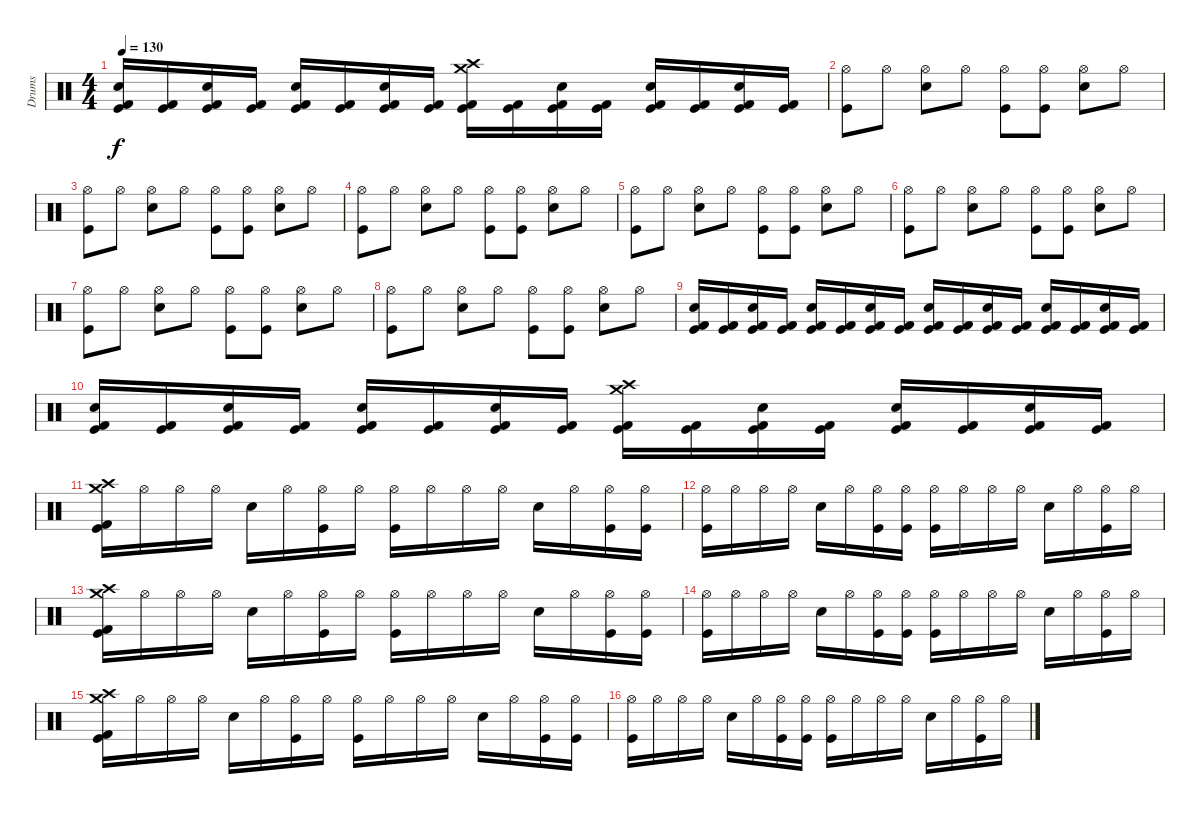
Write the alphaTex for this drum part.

\track ("Drums" "Drums") {instrument percussion}
\staff {score}
\articulation defaults
\ts (4 4)
\tempo 130
\clef neutral
\ks c
("Electric Snare (hit)" "Kick (hit)" "Kick (hit) 2").16{dy f} ("Kick (hit)" "Kick (hit) 2").16 ("Electric Snare (hit)" "Kick (hit)" "Kick (hit) 2").16 ("Kick (hit)" "Kick (hit) 2").16 ("Electric Snare (hit)" "Kick (hit)" "Kick (hit) 2").16 ("Kick (hit)" "Kick (hit) 2").16 ("Electric Snare (hit)" "Kick (hit)" "Kick (hit) 2").16 ("Kick (hit)" "Kick (hit) 2").16 ("Crash medium (hit)" "Crash high (hit)" "Kick (hit)" "Kick (hit) 2").16 ("Kick (hit)" "Kick (hit) 2").16 ("Electric Snare (hit)" "Kick (hit)" "Kick (hit) 2").16 ("Kick (hit)" "Kick (hit) 2").16 ("Electric Snare (hit)" "Kick (hit)" "Kick (hit) 2").16 ("Kick (hit)" "Kick (hit) 2").16 ("Electric Snare (hit)" "Kick (hit)" "Kick (hit) 2").16 ("Kick (hit)" "Kick (hit) 2").16 |
("Kick (hit)" "Hi-Hat (open)").8 "Hi-Hat (open)".8 ("Electric Snare (hit)" "Hi-Hat (open)").8 "Hi-Hat (open)".8 ("Kick (hit)" "Hi-Hat (open)").8 ("Kick (hit)" "Hi-Hat (open)").8 ("Electric Snare (hit)" "Hi-Hat (open)").8 "Hi-Hat (open)".8 |
("Kick (hit)" "Hi-Hat (open)").8 "Hi-Hat (open)".8 ("Electric Snare (hit)" "Hi-Hat (open)").8 "Hi-Hat (open)".8 ("Kick (hit)" "Hi-Hat (open)").8 ("Kick (hit)" "Hi-Hat (open)").8 ("Electric Snare (hit)" "Hi-Hat (open)").8 "Hi-Hat (open)".8 |
("Kick (hit)" "Hi-Hat (open)").8 "Hi-Hat (open)".8 ("Electric Snare (hit)" "Hi-Hat (open)").8 "Hi-Hat (open)".8 ("Kick (hit)" "Hi-Hat (open)").8 ("Kick (hit)" "Hi-Hat (open)").8 ("Electric Snare (hit)" "Hi-Hat (open)").8 "Hi-Hat (open)".8 |
("Kick (hit)" "Hi-Hat (open)").8 "Hi-Hat (open)".8 ("Electric Snare (hit)" "Hi-Hat (open)").8 "Hi-Hat (open)".8 ("Kick (hit)" "Hi-Hat (open)").8 ("Kick (hit)" "Hi-Hat (open)").8 ("Electric Snare (hit)" "Hi-Hat (open)").8 "Hi-Hat (open)".8 |
("Kick (hit)" "Hi-Hat (open)").8 "Hi-Hat (open)".8 ("Electric Snare (hit)" "Hi-Hat (open)").8 "Hi-Hat (open)".8 ("Kick (hit)" "Hi-Hat (open)").8 ("Kick (hit)" "Hi-Hat (open)").8 ("Electric Snare (hit)" "Hi-Hat (open)").8 "Hi-Hat (open)".8 |
("Kick (hit)" "Hi-Hat (open)").8 "Hi-Hat (open)".8 ("Electric Snare (hit)" "Hi-Hat (open)").8 "Hi-Hat (open)".8 ("Kick (hit)" "Hi-Hat (open)").8 ("Kick (hit)" "Hi-Hat (open)").8 ("Electric Snare (hit)" "Hi-Hat (open)").8 "Hi-Hat (open)".8 |
("Kick (hit)" "Hi-Hat (open)").8 "Hi-Hat (open)".8 ("Electric Snare (hit)" "Hi-Hat (open)").8 "Hi-Hat (open)".8 ("Kick (hit)" "Hi-Hat (open)").8 ("Kick (hit)" "Hi-Hat (open)").8 ("Electric Snare (hit)" "Hi-Hat (open)").8 "Hi-Hat (open)".8 |
("Electric Snare (hit)" "Kick (hit)" "Kick (hit) 2").16 ("Kick (hit)" "Kick (hit) 2").16 ("Electric Snare (hit)" "Kick (hit)" "Kick (hit) 2").16 ("Kick (hit)" "Kick (hit) 2").16 ("Electric Snare (hit)" "Kick (hit)" "Kick (hit) 2").16 ("Kick (hit)" "Kick (hit) 2").16 ("Electric Snare (hit)" "Kick (hit)" "Kick (hit) 2").16 ("Kick (hit)" "Kick (hit) 2").16 ("Electric Snare (hit)" "Kick (hit)" "Kick (hit) 2").16 ("Kick (hit)" "Kick (hit) 2").16 ("Electric Snare (hit)" "Kick (hit)" "Kick (hit) 2").16 ("Kick (hit)" "Kick (hit) 2").16 ("Electric Snare (hit)" "Kick (hit)" "Kick (hit) 2").16 ("Kick (hit)" "Kick (hit) 2").16 ("Electric Snare (hit)" "Kick (hit)" "Kick (hit) 2").16 ("Kick (hit)" "Kick (hit) 2").16 |
("Electric Snare (hit)" "Kick (hit)" "Kick (hit) 2").16 ("Kick (hit)" "Kick (hit) 2").16 ("Electric Snare (hit)" "Kick (hit)" "Kick (hit) 2").16 ("Kick (hit)" "Kick (hit) 2").16 ("Electric Snare (hit)" "Kick (hit)" "Kick (hit) 2").16 ("Kick (hit)" "Kick (hit) 2").16 ("Electric Snare (hit)" "Kick (hit)" "Kick (hit) 2").16 ("Kick (hit)" "Kick (hit) 2").16 ("Crash medium (hit)" "Crash high (hit)" "Kick (hit)" "Kick (hit) 2").16 ("Kick (hit)" "Kick (hit) 2").16 ("Electric Snare (hit)" "Kick (hit)" "Kick (hit) 2").16 ("Kick (hit)" "Kick (hit) 2").16 ("Electric Snare (hit)" "Kick (hit)" "Kick (hit) 2").16 ("Kick (hit)" "Kick (hit) 2").16 ("Electric Snare (hit)" "Kick (hit)" "Kick (hit) 2").16 ("Kick (hit)" "Kick (hit) 2").16 |
("Crash medium (hit)" "Crash high (hit)" "Kick (hit) 2" "Kick (hit)").16 "Hi-Hat (open)".16 "Hi-Hat (open)".16 "Hi-Hat (open)".16 "Electric Snare (hit)".16 "Hi-Hat (open)".16 ("Hi-Hat (open)" "Kick (hit)").16 "Hi-Hat (open)".16 ("Hi-Hat (open)" "Kick (hit)").16 "Hi-Hat (open)".16 "Hi-Hat (open)".16 "Hi-Hat (open)".16 "Electric Snare (hit)".16 "Hi-Hat (open)".16 ("Hi-Hat (open)" "Kick (hit)").16 ("Hi-Hat (open)" "Kick (hit)").16 |
("Hi-Hat (open)" "Kick (hit)").16 "Hi-Hat (open)".16 "Hi-Hat (open)".16 "Hi-Hat (open)".16 "Electric Snare (hit)".16 "Hi-Hat (open)".16 ("Hi-Hat (open)" "Kick (hit)").16 ("Hi-Hat (open)" "Kick (hit)").16 ("Hi-Hat (open)" "Kick (hit)").16 "Hi-Hat (open)".16 "Hi-Hat (open)".16 "Hi-Hat (open)".16 "Electric Snare (hit)".16 "Hi-Hat (open)".16 ("Hi-Hat (open)" "Kick (hit)").16 "Hi-Hat (open)".16 |
("Crash medium (hit)" "Crash high (hit)" "Kick (hit) 2" "Kick (hit)").16 "Hi-Hat (open)".16 "Hi-Hat (open)".16 "Hi-Hat (open)".16 "Electric Snare (hit)".16 "Hi-Hat (open)".16 ("Hi-Hat (open)" "Kick (hit)").16 "Hi-Hat (open)".16 ("Hi-Hat (open)" "Kick (hit)").16 "Hi-Hat (open)".16 "Hi-Hat (open)".16 "Hi-Hat (open)".16 "Electric Snare (hit)".16 "Hi-Hat (open)".16 ("Hi-Hat (open)" "Kick (hit)").16 ("Hi-Hat (open)" "Kick (hit)").16 |
("Hi-Hat (open)" "Kick (hit)").16 "Hi-Hat (open)".16 "Hi-Hat (open)".16 "Hi-Hat (open)".16 "Electric Snare (hit)".16 "Hi-Hat (open)".16 ("Hi-Hat (open)" "Kick (hit)").16 ("Hi-Hat (open)" "Kick (hit)").16 ("Hi-Hat (open)" "Kick (hit)").16 "Hi-Hat (open)".16 "Hi-Hat (open)".16 "Hi-Hat (open)".16 "Electric Snare (hit)".16 "Hi-Hat (open)".16 ("Hi-Hat (open)" "Kick (hit)").16 "Hi-Hat (open)".16 |
("Crash medium (hit)" "Crash high (hit)" "Kick (hit) 2" "Kick (hit)").16 "Hi-Hat (open)".16 "Hi-Hat (open)".16 "Hi-Hat (open)".16 "Electric Snare (hit)".16 "Hi-Hat (open)".16 ("Hi-Hat (open)" "Kick (hit)").16 "Hi-Hat (open)".16 ("Hi-Hat (open)" "Kick (hit)").16 "Hi-Hat (open)".16 "Hi-Hat (open)".16 "Hi-Hat (open)".16 "Electric Snare (hit)".16 "Hi-Hat (open)".16 ("Hi-Hat (open)" "Kick (hit)").16 ("Hi-Hat (open)" "Kick (hit)").16 |
("Hi-Hat (open)" "Kick (hit)").16 "Hi-Hat (open)".16 "Hi-Hat (open)".16 "Hi-Hat (open)".16 "Electric Snare (hit)".16 "Hi-Hat (open)".16 ("Hi-Hat (open)" "Kick (hit)").16 ("Hi-Hat (open)" "Kick (hit)").16 ("Hi-Hat (open)" "Kick (hit)").16 "Hi-Hat (open)".16 "Hi-Hat (open)".16 "Hi-Hat (open)".16 "Electric Snare (hit)".16 "Hi-Hat (open)".16 ("Hi-Hat (open)" "Kick (hit)").16 "Hi-Hat (open)".16
